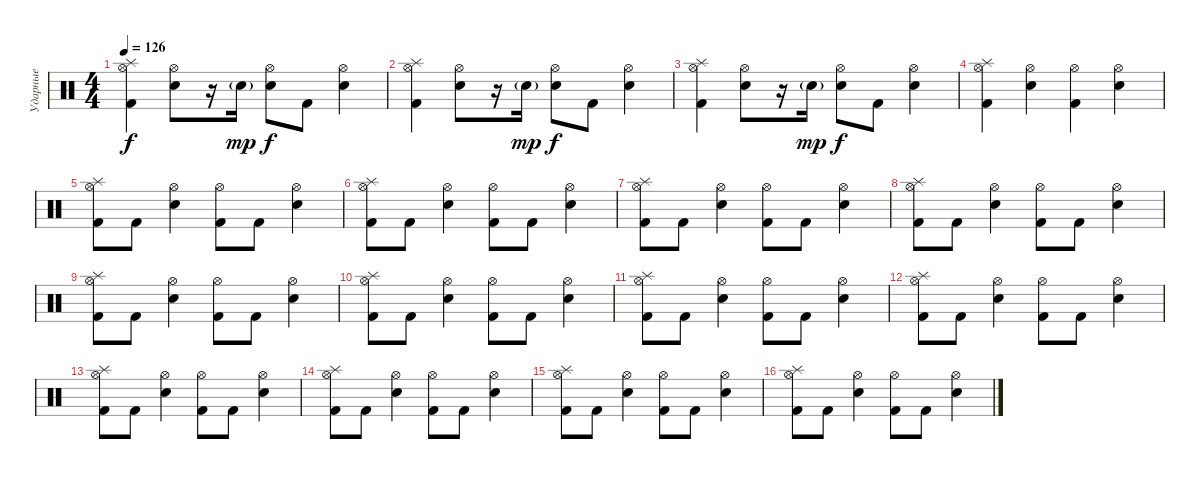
\track ("Ударные" "Ударные") {instrument percussion}
\staff {score}
\articulation defaults
\ts (4 4)
\tempo 126
\clef neutral
\ks c
("Kick (hit) 2" "Hi-Hat (open)" "Splash (hit)").4{dy f} ("Electric Snare (hit)" "Hi-Hat (open)").8 r.16 "Electric Snare (hit)"{g}.16{dy mp} ("Electric Snare (hit)" "Hi-Hat (open)").8{dy f} "Kick (hit) 2".8 ("Electric Snare (hit)" "Hi-Hat (open)").4 |
("Kick (hit) 2" "Hi-Hat (open)" "Splash (hit)").4 ("Electric Snare (hit)" "Hi-Hat (open)").8 r.16 "Electric Snare (hit)"{g}.16{dy mp} ("Electric Snare (hit)" "Hi-Hat (open)").8{dy f} "Kick (hit) 2".8 ("Electric Snare (hit)" "Hi-Hat (open)").4 |
("Kick (hit) 2" "Hi-Hat (open)" "Splash (hit)").4 ("Electric Snare (hit)" "Hi-Hat (open)").8 r.16 "Electric Snare (hit)"{g}.16{dy mp} ("Electric Snare (hit)" "Hi-Hat (open)").8{dy f} "Kick (hit) 2".8 ("Electric Snare (hit)" "Hi-Hat (open)").4 |
("Kick (hit) 2" "Hi-Hat (open)" "Splash (hit)").4 ("Electric Snare (hit)" "Hi-Hat (open)").4 ("Kick (hit) 2" "Hi-Hat (open)").4 ("Electric Snare (hit)" "Hi-Hat (open)").4 |
("Kick (hit) 2" "Hi-Hat (open)" "Splash (hit)").8 "Kick (hit) 2".8 ("Electric Snare (hit)" "Hi-Hat (open)").4 ("Kick (hit) 2" "Hi-Hat (open)").8 "Kick (hit) 2".8 ("Electric Snare (hit)" "Hi-Hat (open)").4 |
("Kick (hit) 2" "Hi-Hat (open)" "Splash (hit)").8 "Kick (hit) 2".8 ("Electric Snare (hit)" "Hi-Hat (open)").4 ("Kick (hit) 2" "Hi-Hat (open)").8 "Kick (hit) 2".8 ("Electric Snare (hit)" "Hi-Hat (open)").4 |
("Kick (hit) 2" "Hi-Hat (open)" "Splash (hit)").8 "Kick (hit) 2".8 ("Electric Snare (hit)" "Hi-Hat (open)").4 ("Kick (hit) 2" "Hi-Hat (open)").8 "Kick (hit) 2".8 ("Electric Snare (hit)" "Hi-Hat (open)").4 |
("Kick (hit) 2" "Hi-Hat (open)" "Splash (hit)").8 "Kick (hit) 2".8 ("Electric Snare (hit)" "Hi-Hat (open)").4 ("Kick (hit) 2" "Hi-Hat (open)").8 "Kick (hit) 2".8 ("Electric Snare (hit)" "Hi-Hat (open)").4 |
("Kick (hit) 2" "Hi-Hat (open)" "Splash (hit)").8 "Kick (hit) 2".8 ("Electric Snare (hit)" "Hi-Hat (open)").4 ("Kick (hit) 2" "Hi-Hat (open)").8 "Kick (hit) 2".8 ("Electric Snare (hit)" "Hi-Hat (open)").4 |
("Kick (hit) 2" "Hi-Hat (open)" "Splash (hit)").8 "Kick (hit) 2".8 ("Electric Snare (hit)" "Hi-Hat (open)").4 ("Kick (hit) 2" "Hi-Hat (open)").8 "Kick (hit) 2".8 ("Electric Snare (hit)" "Hi-Hat (open)").4 |
("Kick (hit) 2" "Hi-Hat (open)" "Splash (hit)").8 "Kick (hit) 2".8 ("Electric Snare (hit)" "Hi-Hat (open)").4 ("Kick (hit) 2" "Hi-Hat (open)").8 "Kick (hit) 2".8 ("Electric Snare (hit)" "Hi-Hat (open)").4 |
("Kick (hit) 2" "Hi-Hat (open)" "Splash (hit)").8 "Kick (hit) 2".8 ("Electric Snare (hit)" "Hi-Hat (open)").4 ("Kick (hit) 2" "Hi-Hat (open)").8 "Kick (hit) 2".8 ("Electric Snare (hit)" "Hi-Hat (open)").4 |
("Kick (hit) 2" "Hi-Hat (open)" "Splash (hit)").8 "Kick (hit) 2".8 ("Electric Snare (hit)" "Hi-Hat (open)").4 ("Kick (hit) 2" "Hi-Hat (open)").8 "Kick (hit) 2".8 ("Electric Snare (hit)" "Hi-Hat (open)").4 |
("Kick (hit) 2" "Hi-Hat (open)" "Splash (hit)").8 "Kick (hit) 2".8 ("Electric Snare (hit)" "Hi-Hat (open)").4 ("Kick (hit) 2" "Hi-Hat (open)").8 "Kick (hit) 2".8 ("Electric Snare (hit)" "Hi-Hat (open)").4 |
("Kick (hit) 2" "Hi-Hat (open)" "Splash (hit)").8 "Kick (hit) 2".8 ("Electric Snare (hit)" "Hi-Hat (open)").4 ("Kick (hit) 2" "Hi-Hat (open)").8 "Kick (hit) 2".8 ("Electric Snare (hit)" "Hi-Hat (open)").4 |
("Kick (hit) 2" "Hi-Hat (open)" "Splash (hit)").8 "Kick (hit) 2".8 ("Electric Snare (hit)" "Hi-Hat (open)").4 ("Kick (hit) 2" "Hi-Hat (open)").8 "Kick (hit) 2".8 ("Electric Snare (hit)" "Hi-Hat (open)").4
